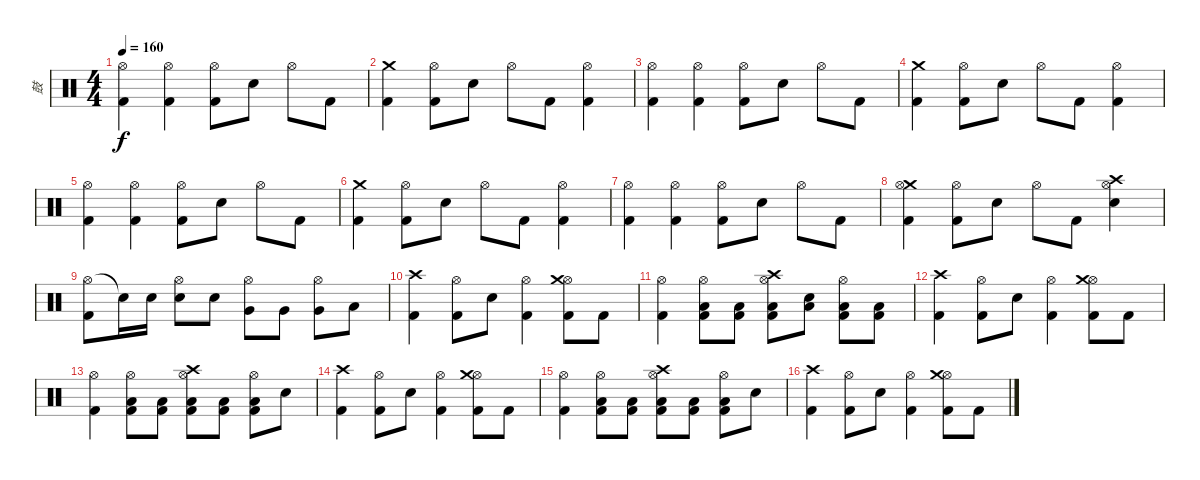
\track ("鼓" "鼓") {instrument percussion}
\staff {score}
\articulation defaults
\ts (4 4)
\tempo 160
\clef neutral
\ks c
("Hi-Hat (open)" "Kick (hit) 2").4{dy f} ("Hi-Hat (open)" "Kick (hit) 2").4 ("Hi-Hat (open)" "Kick (hit) 2").8 "Electric Snare (hit)".8 "Hi-Hat (open)".8 "Kick (hit) 2".8 |
("Crash medium (hit)" "Kick (hit) 2").4 ("Hi-Hat (open)" "Kick (hit) 2").8 "Electric Snare (hit)".8 "Hi-Hat (open)".8 "Kick (hit) 2".8 ("Hi-Hat (open)" "Kick (hit) 2").4 |
("Hi-Hat (open)" "Kick (hit) 2").4 ("Hi-Hat (open)" "Kick (hit) 2").4 ("Hi-Hat (open)" "Kick (hit) 2").8 "Electric Snare (hit)".8 "Hi-Hat (open)".8 "Kick (hit) 2".8 |
("Crash medium (hit)" "Kick (hit) 2").4 ("Hi-Hat (open)" "Kick (hit) 2").8 "Electric Snare (hit)".8 "Hi-Hat (open)".8 "Kick (hit) 2".8 ("Hi-Hat (open)" "Kick (hit) 2").4 |
("Hi-Hat (open)" "Kick (hit) 2").4 ("Hi-Hat (open)" "Kick (hit) 2").4 ("Hi-Hat (open)" "Kick (hit) 2").8 "Electric Snare (hit)".8 "Hi-Hat (open)".8 "Kick (hit) 2".8 |
("Crash medium (hit)" "Kick (hit) 2").4 ("Hi-Hat (open)" "Kick (hit) 2").8 "Electric Snare (hit)".8 "Hi-Hat (open)".8 "Kick (hit) 2".8 ("Hi-Hat (open)" "Kick (hit) 2").4 |
("Hi-Hat (open)" "Kick (hit) 2").4 ("Hi-Hat (open)" "Kick (hit) 2").4 ("Hi-Hat (open)" "Kick (hit) 2").8 "Electric Snare (hit)".8 "Hi-Hat (open)".8 "Kick (hit) 2".8 |
("Crash medium (hit)" "Hi-Hat (open)" "Kick (hit) 2").4 ("Hi-Hat (open)" "Kick (hit) 2").8 "Electric Snare (hit)".8 "Hi-Hat (open)".8 "Kick (hit) 2".8 ("Crash high (hit)" "Electric Snare (hit)" "Hi-Hat (open)").4 |
("Hi-Hat (open)" "Kick (hit) 2").8 "Snare (hit)"{t}.16 "Electric Snare (hit)".16 ("Hi-Hat (open)" "Electric Snare (hit)").8 "Electric Snare (hit)".8 ("Hi-Hat (open)" "Very Low Tom (hit)").8 "Very Low Tom (hit)".8 ("Hi-Hat (open)" "Very Low Tom (hit)").8 "Low Floor Tom (hit)".8 |
("Crash high (hit)" "Kick (hit) 2").4 ("Hi-Hat (open)" "Kick (hit) 2").8 "Electric Snare (hit)".8 ("Hi-Hat (open)" "Kick (hit) 2").4 ("Hi-Hat (open)" "Crash medium (hit)" "Kick (hit) 2").8 "Kick (hit) 2".8 |
("Hi-Hat (open)" "Kick (hit) 2").4 ("Hi-Hat (open)" "Low Floor Tom (hit)" "Kick (hit) 2").8 ("Low Floor Tom (hit)" "Kick (hit) 2").8 ("Hi-Hat (open)" "Crash high (hit)" "Low Floor Tom (hit)" "Kick (hit) 2").8 ("Electric Snare (hit)" "Low Floor Tom (hit)").8 ("Hi-Hat (open)" "Low Floor Tom (hit)" "Kick (hit) 2").8 ("Low Floor Tom (hit)" "Kick (hit) 2").8 |
("Crash high (hit)" "Kick (hit) 2").4 ("Hi-Hat (open)" "Kick (hit) 2").8 "Electric Snare (hit)".8 ("Hi-Hat (open)" "Kick (hit) 2").4 ("Hi-Hat (open)" "Crash medium (hit)" "Kick (hit) 2").8 "Kick (hit) 2".8 |
("Hi-Hat (open)" "Kick (hit) 2").4 ("Hi-Hat (open)" "Low Floor Tom (hit)" "Kick (hit) 2").8 ("Low Floor Tom (hit)" "Kick (hit) 2").8 ("Hi-Hat (open)" "Crash high (hit)" "Low Floor Tom (hit)" "Kick (hit) 2").8 ("Low Floor Tom (hit)" "Kick (hit) 2").8 ("Hi-Hat (open)" "Low Floor Tom (hit)" "Kick (hit) 2").8 "Electric Snare (hit)".8 |
("Crash high (hit)" "Kick (hit) 2").4 ("Hi-Hat (open)" "Kick (hit) 2").8 "Electric Snare (hit)".8 ("Hi-Hat (open)" "Kick (hit) 2").4 ("Hi-Hat (open)" "Crash medium (hit)" "Kick (hit) 2").8 "Kick (hit) 2".8 |
("Hi-Hat (open)" "Kick (hit) 2").4 ("Hi-Hat (open)" "Low Floor Tom (hit)" "Kick (hit) 2").8 ("Low Floor Tom (hit)" "Kick (hit) 2").8 ("Hi-Hat (open)" "Crash high (hit)" "Low Floor Tom (hit)" "Kick (hit) 2").8 ("Low Floor Tom (hit)" "Kick (hit) 2").8 ("Hi-Hat (open)" "Low Floor Tom (hit)" "Kick (hit) 2").8 "Electric Snare (hit)".8 |
("Crash high (hit)" "Kick (hit) 2").4 ("Hi-Hat (open)" "Kick (hit) 2").8 "Electric Snare (hit)".8 ("Hi-Hat (open)" "Kick (hit) 2").4 ("Hi-Hat (open)" "Crash medium (hit)" "Kick (hit) 2").8 "Kick (hit) 2".8
